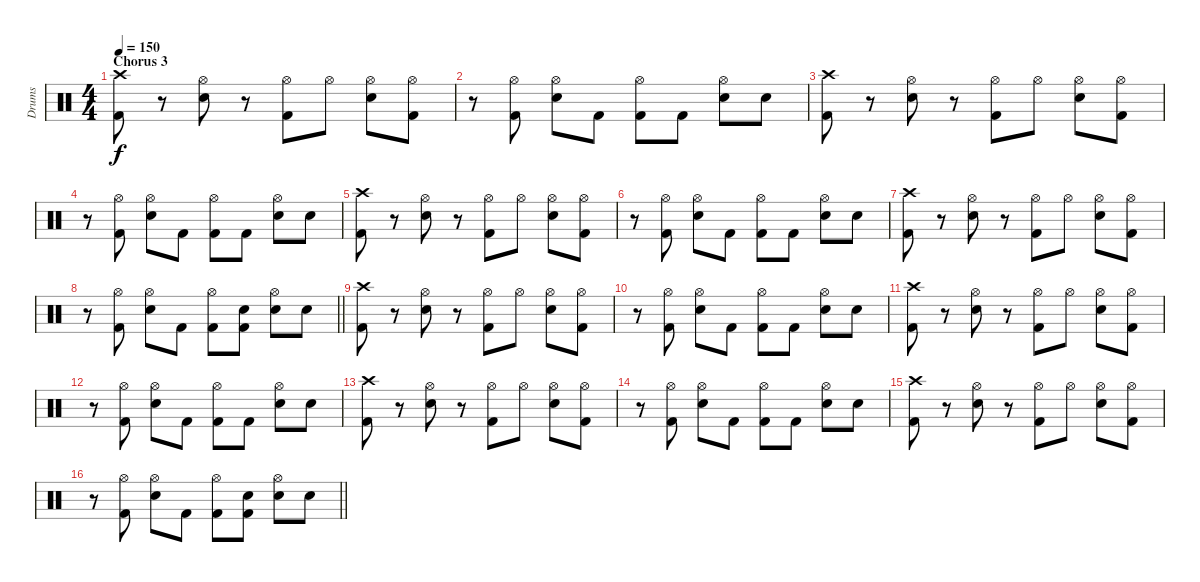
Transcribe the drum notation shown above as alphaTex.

\track ("Drums" "Drums") {instrument percussion}
\staff {score}
\articulation defaults
\ts (4 4)
\section ("" "Chorus 3")
\tempo 150
\clef neutral
\ks c
("Crash high (hit)" "Kick (hit) 2").8{dy f} r.8 ("Snare (hit) 2" "Hi-Hat (open)").8 r.8 ("Hi-Hat (open)" "Kick (hit) 2").8 "Hi-Hat (open)".8 ("Snare (hit) 2" "Hi-Hat (open)").8 ("Hi-Hat (open)" "Kick (hit) 2").8 |
r.8 ("Hi-Hat (open)" "Kick (hit) 2").8 ("Snare (hit) 2" "Hi-Hat (open)").8 "Kick (hit) 2".8 ("Hi-Hat (open)" "Kick (hit) 2").8 "Kick (hit) 2".8 ("Snare (hit) 2" "Hi-Hat (open)").8 "Snare (hit) 2".8 |
("Crash high (hit)" "Kick (hit) 2").8 r.8 ("Snare (hit) 2" "Hi-Hat (open)").8 r.8 ("Hi-Hat (open)" "Kick (hit) 2").8 "Hi-Hat (open)".8 ("Snare (hit) 2" "Hi-Hat (open)").8 ("Hi-Hat (open)" "Kick (hit) 2").8 |
r.8 ("Hi-Hat (open)" "Kick (hit) 2").8 ("Snare (hit) 2" "Hi-Hat (open)").8 "Kick (hit) 2".8 ("Hi-Hat (open)" "Kick (hit) 2").8 "Kick (hit) 2".8 ("Snare (hit) 2" "Hi-Hat (open)").8 "Snare (hit) 2".8 |
("Crash high (hit)" "Kick (hit) 2").8 r.8 ("Snare (hit) 2" "Hi-Hat (open)").8 r.8 ("Hi-Hat (open)" "Kick (hit) 2").8 "Hi-Hat (open)".8 ("Snare (hit) 2" "Hi-Hat (open)").8 ("Hi-Hat (open)" "Kick (hit) 2").8 |
r.8 ("Hi-Hat (open)" "Kick (hit) 2").8 ("Snare (hit) 2" "Hi-Hat (open)").8 "Kick (hit) 2".8 ("Hi-Hat (open)" "Kick (hit) 2").8 "Kick (hit) 2".8 ("Snare (hit) 2" "Hi-Hat (open)").8 "Snare (hit) 2".8 |
("Crash high (hit)" "Kick (hit) 2").8 r.8 ("Snare (hit) 2" "Hi-Hat (open)").8 r.8 ("Hi-Hat (open)" "Kick (hit) 2").8 "Hi-Hat (open)".8 ("Snare (hit) 2" "Hi-Hat (open)").8 ("Hi-Hat (open)" "Kick (hit) 2").8 |
\barLineRight lightlight
r.8 ("Hi-Hat (open)" "Kick (hit) 2").8 ("Snare (hit) 2" "Hi-Hat (open)").8 "Kick (hit) 2".8 ("Hi-Hat (open)" "Kick (hit) 2").8 ("Snare (hit) 2" "Kick (hit) 2").8 ("Snare (hit) 2" "Hi-Hat (open)").8 "Snare (hit) 2".8 |
("Crash high (hit)" "Kick (hit) 2").8 r.8 ("Snare (hit) 2" "Hi-Hat (open)").8 r.8 ("Hi-Hat (open)" "Kick (hit) 2").8 "Hi-Hat (open)".8 ("Snare (hit) 2" "Hi-Hat (open)").8 ("Hi-Hat (open)" "Kick (hit) 2").8 |
r.8 ("Hi-Hat (open)" "Kick (hit) 2").8 ("Snare (hit) 2" "Hi-Hat (open)").8 "Kick (hit) 2".8 ("Hi-Hat (open)" "Kick (hit) 2").8 "Kick (hit) 2".8 ("Snare (hit) 2" "Hi-Hat (open)").8 "Snare (hit) 2".8 |
("Crash high (hit)" "Kick (hit) 2").8 r.8 ("Snare (hit) 2" "Hi-Hat (open)").8 r.8 ("Hi-Hat (open)" "Kick (hit) 2").8 "Hi-Hat (open)".8 ("Snare (hit) 2" "Hi-Hat (open)").8 ("Hi-Hat (open)" "Kick (hit) 2").8 |
r.8 ("Hi-Hat (open)" "Kick (hit) 2").8 ("Snare (hit) 2" "Hi-Hat (open)").8 "Kick (hit) 2".8 ("Hi-Hat (open)" "Kick (hit) 2").8 "Kick (hit) 2".8 ("Snare (hit) 2" "Hi-Hat (open)").8 "Snare (hit) 2".8 |
("Crash high (hit)" "Kick (hit) 2").8 r.8 ("Snare (hit) 2" "Hi-Hat (open)").8 r.8 ("Hi-Hat (open)" "Kick (hit) 2").8 "Hi-Hat (open)".8 ("Snare (hit) 2" "Hi-Hat (open)").8 ("Hi-Hat (open)" "Kick (hit) 2").8 |
r.8 ("Hi-Hat (open)" "Kick (hit) 2").8 ("Snare (hit) 2" "Hi-Hat (open)").8 "Kick (hit) 2".8 ("Hi-Hat (open)" "Kick (hit) 2").8 "Kick (hit) 2".8 ("Snare (hit) 2" "Hi-Hat (open)").8 "Snare (hit) 2".8 |
("Crash high (hit)" "Kick (hit) 2").8 r.8 ("Snare (hit) 2" "Hi-Hat (open)").8 r.8 ("Hi-Hat (open)" "Kick (hit) 2").8 "Hi-Hat (open)".8 ("Snare (hit) 2" "Hi-Hat (open)").8 ("Hi-Hat (open)" "Kick (hit) 2").8 |
\barLineRight lightlight
r.8 ("Hi-Hat (open)" "Kick (hit) 2").8 ("Snare (hit) 2" "Hi-Hat (open)").8 "Kick (hit) 2".8 ("Hi-Hat (open)" "Kick (hit) 2").8 ("Snare (hit) 2" "Kick (hit) 2").8 ("Snare (hit) 2" "Hi-Hat (open)").8 "Snare (hit) 2".8
